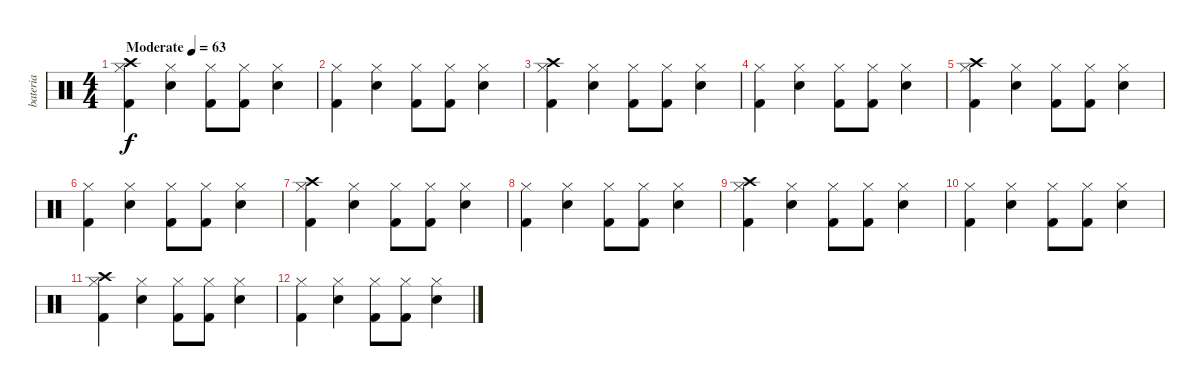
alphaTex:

\track ("bateria" "bateria") {instrument percussion}
\staff {score}
\articulation defaults
\ts (4 4)
\tempo (63 "Moderate")
\clef neutral
\ks c
("Hi-Hat (closed)" "Crash high (hit)" "Kick (hit) 2").4{dy f} ("Hi-Hat (closed)" "Electric Snare (hit)").4 ("Hi-Hat (closed)" "Kick (hit) 2").8 ("Hi-Hat (closed)" "Kick (hit) 2").8 ("Hi-Hat (closed)" "Electric Snare (hit)").4 |
("Hi-Hat (closed)" "Kick (hit) 2").4 ("Hi-Hat (closed)" "Electric Snare (hit)").4 ("Hi-Hat (closed)" "Kick (hit) 2").8 ("Hi-Hat (closed)" "Kick (hit) 2").8 ("Hi-Hat (closed)" "Electric Snare (hit)").4 |
("Hi-Hat (closed)" "Crash high (hit)" "Kick (hit) 2").4 ("Hi-Hat (closed)" "Electric Snare (hit)").4 ("Hi-Hat (closed)" "Kick (hit) 2").8 ("Hi-Hat (closed)" "Kick (hit) 2").8 ("Hi-Hat (closed)" "Electric Snare (hit)").4 |
("Hi-Hat (closed)" "Kick (hit) 2").4 ("Hi-Hat (closed)" "Electric Snare (hit)").4 ("Hi-Hat (closed)" "Kick (hit) 2").8 ("Hi-Hat (closed)" "Kick (hit) 2").8 ("Hi-Hat (closed)" "Electric Snare (hit)").4 |
("Hi-Hat (closed)" "Crash high (hit)" "Kick (hit) 2").4 ("Hi-Hat (closed)" "Electric Snare (hit)").4 ("Hi-Hat (closed)" "Kick (hit) 2").8 ("Hi-Hat (closed)" "Kick (hit) 2").8 ("Hi-Hat (closed)" "Electric Snare (hit)").4 |
("Hi-Hat (closed)" "Kick (hit) 2").4 ("Hi-Hat (closed)" "Electric Snare (hit)").4 ("Hi-Hat (closed)" "Kick (hit) 2").8 ("Hi-Hat (closed)" "Kick (hit) 2").8 ("Hi-Hat (closed)" "Electric Snare (hit)").4 |
("Hi-Hat (closed)" "Crash high (hit)" "Kick (hit) 2").4 ("Hi-Hat (closed)" "Electric Snare (hit)").4 ("Hi-Hat (closed)" "Kick (hit) 2").8 ("Hi-Hat (closed)" "Kick (hit) 2").8 ("Hi-Hat (closed)" "Electric Snare (hit)").4 |
("Hi-Hat (closed)" "Kick (hit) 2").4 ("Hi-Hat (closed)" "Electric Snare (hit)").4 ("Hi-Hat (closed)" "Kick (hit) 2").8 ("Hi-Hat (closed)" "Kick (hit) 2").8 ("Hi-Hat (closed)" "Electric Snare (hit)").4 |
("Hi-Hat (closed)" "Crash high (hit)" "Kick (hit) 2").4 ("Hi-Hat (closed)" "Electric Snare (hit)").4 ("Hi-Hat (closed)" "Kick (hit) 2").8 ("Hi-Hat (closed)" "Kick (hit) 2").8 ("Hi-Hat (closed)" "Electric Snare (hit)").4 |
("Hi-Hat (closed)" "Kick (hit) 2").4 ("Hi-Hat (closed)" "Electric Snare (hit)").4 ("Hi-Hat (closed)" "Kick (hit) 2").8 ("Hi-Hat (closed)" "Kick (hit) 2").8 ("Hi-Hat (closed)" "Electric Snare (hit)").4 |
("Hi-Hat (closed)" "Crash high (hit)" "Kick (hit) 2").4 ("Hi-Hat (closed)" "Electric Snare (hit)").4 ("Hi-Hat (closed)" "Kick (hit) 2").8 ("Hi-Hat (closed)" "Kick (hit) 2").8 ("Hi-Hat (closed)" "Electric Snare (hit)").4 |
("Hi-Hat (closed)" "Kick (hit) 2").4 ("Hi-Hat (closed)" "Electric Snare (hit)").4 ("Hi-Hat (closed)" "Kick (hit) 2").8 ("Hi-Hat (closed)" "Kick (hit) 2").8 ("Hi-Hat (closed)" "Electric Snare (hit)").4
